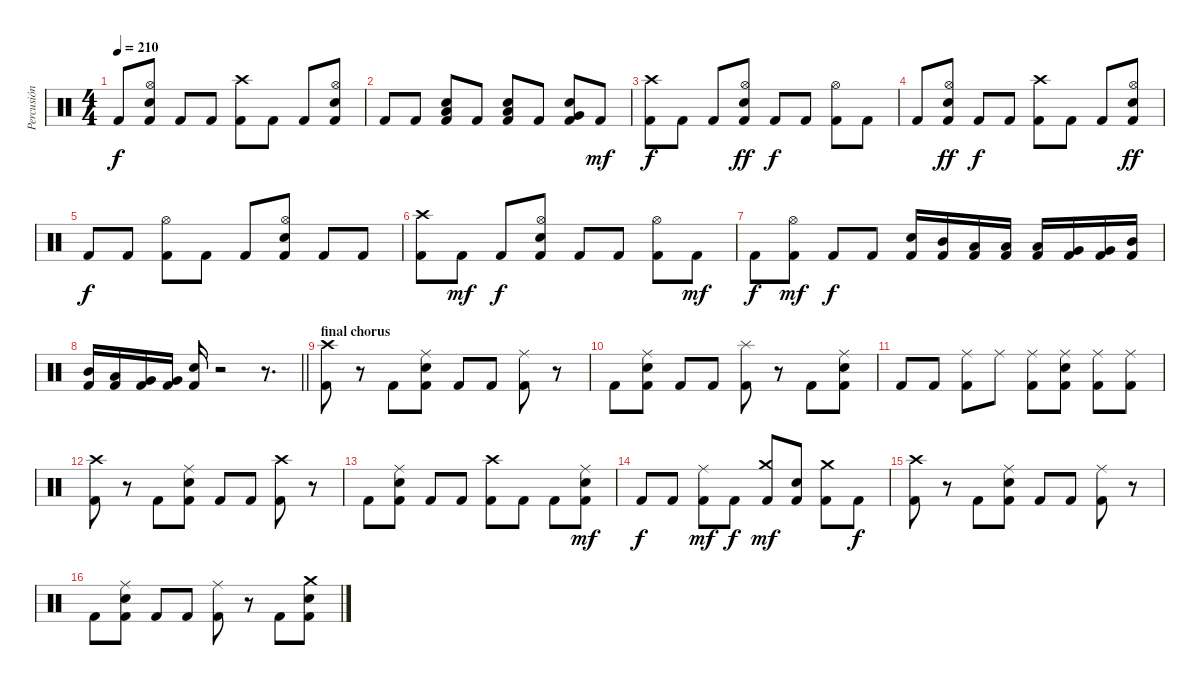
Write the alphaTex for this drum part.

\track ("Percusión" "Percusión") {instrument percussion}
\staff {score}
\articulation defaults
\ts (4 4)
\tempo 210
\clef neutral
\ks c "Kick (hit) 2".8{dy f}
("Hi-Hat (open)" "Snare (hit) 2" "Kick (hit) 2").8 "Kick (hit) 2".8 "Kick (hit) 2".8 ("Crash high (hit)" "Kick (hit) 2").8 "Kick (hit) 2".8 "Kick (hit) 2".8 ("Hi-Hat (open)" "Snare (hit) 2" "Kick (hit) 2").8 |
"Kick (hit) 2".8 "Kick (hit) 2".8 ("Electric Snare (hit)" "Low Tom (hit)" "Kick (hit) 2").8 "Kick (hit) 2".8 ("Electric Snare (hit)" "Low Tom (hit)" "Kick (hit) 2").8 "Kick (hit) 2".8 ("Electric Snare (hit)" "Very Low Tom (hit)" "Kick (hit) 2").8 "Kick (hit) 2".8{dy mf} |
("Crash high (hit)" "Kick (hit) 2").8{dy f} "Kick (hit) 2".8 "Kick (hit) 2".8 ("Hi-Hat (open)" "Snare (hit) 2" "Kick (hit) 2").8{dy ff} "Kick (hit) 2".8{dy f} "Kick (hit) 2".8 ("Hi-Hat (open)" "Kick (hit) 2").8 "Kick (hit) 2".8 |
"Kick (hit) 2".8 ("Hi-Hat (open)" "Snare (hit) 2" "Kick (hit) 2").8{dy ff} "Kick (hit) 2".8{dy f} "Kick (hit) 2".8 ("Crash high (hit)" "Kick (hit) 2").8 "Kick (hit) 2".8 "Kick (hit) 2".8 ("Hi-Hat (open)" "Snare (hit) 2" "Kick (hit) 2").8{dy ff} |
"Kick (hit) 2".8{dy f} "Kick (hit) 2".8 ("Hi-Hat (open)" "Kick (hit) 2").8 "Kick (hit) 2".8 "Kick (hit) 2".8 ("Hi-Hat (open)" "Snare (hit) 2" "Kick (hit) 2").8 "Kick (hit) 2".8 "Kick (hit) 2".8 |
("Crash high (hit)" "Kick (hit) 2").8 "Kick (hit) 2".8{dy mf} "Kick (hit) 2".8{dy f} ("Hi-Hat (open)" "Snare (hit) 2" "Kick (hit) 2").8 "Kick (hit) 2".8 "Kick (hit) 2".8 ("Hi-Hat (open)" "Kick (hit) 2").8 "Kick (hit) 2".8{dy mf} |
"Kick (hit) 2".8{dy f} ("Hi-Hat (open)" "Kick (hit) 2").8{dy mf} "Kick (hit) 2".8{dy f} "Kick (hit) 2".8 ("Snare (hit) 2" "Kick (hit) 2").16 ("Mid Tom (hit)" "Kick (hit) 2").16 ("Low Tom (hit)" "Kick (hit) 2").16 ("Low Tom (hit)" "Kick (hit) 2").16 ("Low Tom (hit)" "Kick (hit) 2").16 ("Very Low Tom (hit)" "Kick (hit) 2").16 ("Very Low Tom (hit)" "Kick (hit) 2").16 ("Mid Tom (hit)" "Kick (hit) 2").16 |
\barLineRight lightlight
("Mid Tom (hit)" "Kick (hit) 2").16 ("Low Tom (hit)" "Kick (hit) 2").16 ("Very Low Tom (hit)" "Kick (hit) 2").16 ("Very Low Tom (hit)" "Kick (hit) 2").16 ("Snare (hit) 2" "Kick (hit) 2").16 r.2 r.8{d} |
\section ("" "final chorus")
("Crash high (hit)" "Kick (hit) 2").8 r.8 "Kick (hit) 2".8 ("Ride (middle)" "Snare (hit) 2" "Kick (hit) 2").8 "Kick (hit) 2".8 "Kick (hit) 2".8 ("Ride (middle)" "Kick (hit) 2").8 r.8 |
"Kick (hit) 2".8 ("Ride (middle)" "Snare (hit) 2" "Kick (hit) 2").8 "Kick (hit) 2".8 "Kick (hit) 2".8 ("Splash (hit)" "Kick (hit) 2").8 r.8 "Kick (hit) 2".8 ("Ride (middle)" "Snare (hit) 2" "Kick (hit) 2").8 |
"Kick (hit) 2".8 "Kick (hit) 2".8 ("Ride (middle)" "Kick (hit) 2").8 "Ride (middle)".8 ("Ride (middle)" "Kick (hit) 2").8 ("Ride (middle)" "Snare (hit) 2" "Kick (hit) 2").8 ("Ride (middle)" "Kick (hit) 2").8 ("Ride (middle)" "Kick (hit) 2").8 |
("Crash high (hit)" "Kick (hit) 2").8 r.8 "Kick (hit) 2".8 ("Ride (middle)" "Snare (hit) 2" "Kick (hit) 2").8 "Kick (hit) 2".8 "Kick (hit) 2".8 ("Crash high (hit)" "Kick (hit) 2").8 r.8 |
"Kick (hit) 2".8 ("Ride (middle)" "Snare (hit) 2" "Kick (hit) 2").8 "Kick (hit) 2".8 "Kick (hit) 2".8 ("Crash high (hit)" "Kick (hit) 2").8 "Kick (hit) 2".8 "Kick (hit) 2".8 ("Ride (middle)" "Snare (hit) 2" "Kick (hit) 2").8{dy mf} |
"Kick (hit) 2".8{dy f} "Kick (hit) 2".8 ("Ride (middle)" "Kick (hit) 2").8{dy mf} "Kick (hit) 2".8{dy f} ("Crash medium (hit)" "Kick (hit) 2").8{dy mf beam Up} ("Snare (hit) 2" "Kick (hit) 2").8{beam Up} ("Crash medium (hit)" "Kick (hit) 2").8 "Kick (hit) 2".8{dy f} |
("Crash high (hit)" "Kick (hit) 2").8 r.8 "Kick (hit) 2".8 ("Ride (middle)" "Snare (hit) 2" "Kick (hit) 2").8 "Kick (hit) 2".8 "Kick (hit) 2".8 ("Ride (middle)" "Kick (hit) 2").8 r.8 |
"Kick (hit) 2".8 ("Ride (middle)" "Snare (hit) 2" "Kick (hit) 2").8 "Kick (hit) 2".8 "Kick (hit) 2".8 ("Ride (middle)" "Kick (hit) 2").8 r.8 "Kick (hit) 2".8 ("Crash medium (hit)" "Snare (hit) 2" "Kick (hit) 2").8
